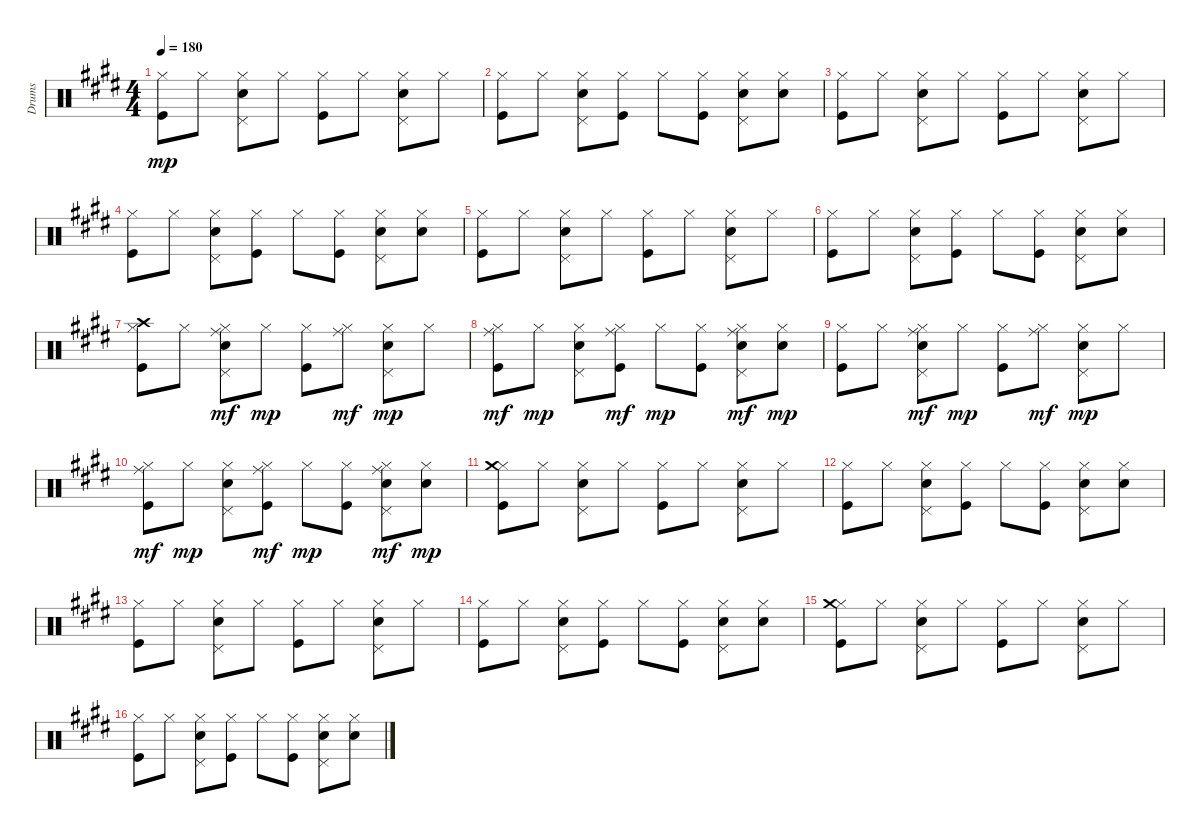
\track ("Drums" "Drums") {instrument percussion}
\staff {score}
\articulation defaults
\ts (4 4)
\tempo 180
\clef neutral
\ks e
("Hi-Hat (closed)" "Kick (hit)").8{dy mp} "Hi-Hat (closed)".8 ("Hi-Hat (closed)" "Snare (hit) 2" "Pedal Hi-Hat (hit)").8 "Hi-Hat (closed)".8 ("Hi-Hat (closed)" "Kick (hit)").8 "Hi-Hat (closed)".8 ("Hi-Hat (closed)" "Snare (hit) 2" "Pedal Hi-Hat (hit)").8 "Hi-Hat (closed)".8 |
("Hi-Hat (closed)" "Kick (hit)").8 "Hi-Hat (closed)".8 ("Hi-Hat (closed)" "Snare (hit) 2" "Pedal Hi-Hat (hit)").8 ("Hi-Hat (closed)" "Kick (hit)").8 "Hi-Hat (closed)".8 ("Hi-Hat (closed)" "Kick (hit)").8 ("Hi-Hat (closed)" "Snare (hit) 2" "Pedal Hi-Hat (hit)").8 ("Hi-Hat (closed)" "Snare (hit) 2").8 |
("Hi-Hat (closed)" "Kick (hit)").8 "Hi-Hat (closed)".8 ("Hi-Hat (closed)" "Snare (hit) 2" "Pedal Hi-Hat (hit)").8 "Hi-Hat (closed)".8 ("Hi-Hat (closed)" "Kick (hit)").8 "Hi-Hat (closed)".8 ("Hi-Hat (closed)" "Snare (hit) 2" "Pedal Hi-Hat (hit)").8 "Hi-Hat (closed)".8 |
("Hi-Hat (closed)" "Kick (hit)").8 "Hi-Hat (closed)".8 ("Hi-Hat (closed)" "Snare (hit) 2" "Pedal Hi-Hat (hit)").8 ("Hi-Hat (closed)" "Kick (hit)").8 "Hi-Hat (closed)".8 ("Hi-Hat (closed)" "Kick (hit)").8 ("Hi-Hat (closed)" "Snare (hit) 2" "Pedal Hi-Hat (hit)").8 ("Hi-Hat (closed)" "Snare (hit) 2").8 |
("Hi-Hat (closed)" "Kick (hit)").8 "Hi-Hat (closed)".8 ("Hi-Hat (closed)" "Snare (hit) 2" "Pedal Hi-Hat (hit)").8 "Hi-Hat (closed)".8 ("Hi-Hat (closed)" "Kick (hit)").8 "Hi-Hat (closed)".8 ("Hi-Hat (closed)" "Snare (hit) 2" "Pedal Hi-Hat (hit)").8 "Hi-Hat (closed)".8 |
("Hi-Hat (closed)" "Kick (hit)").8 "Hi-Hat (closed)".8 ("Hi-Hat (closed)" "Snare (hit) 2" "Pedal Hi-Hat (hit)").8 ("Hi-Hat (closed)" "Kick (hit)").8 "Hi-Hat (closed)".8 ("Hi-Hat (closed)" "Kick (hit)").8 ("Hi-Hat (closed)" "Snare (hit) 2" "Pedal Hi-Hat (hit)").8 ("Hi-Hat (closed)" "Snare (hit) 2").8 |
("Hi-Hat (closed)" "Crash high (hit)" "Kick (hit)").8 "Hi-Hat (closed)".8 ("Hi-Hat (closed)" "Ride (middle)" "Snare (hit) 2" "Pedal Hi-Hat (hit)").8{dy mf} "Hi-Hat (closed)".8{dy mp} ("Hi-Hat (closed)" "Kick (hit)").8 ("Hi-Hat (closed)" "Ride (middle)").8{dy mf} ("Hi-Hat (closed)" "Snare (hit) 2" "Pedal Hi-Hat (hit)").8{dy mp} "Hi-Hat (closed)".8 |
("Hi-Hat (closed)" "Ride (middle)" "Kick (hit)").8{dy mf} "Hi-Hat (closed)".8{dy mp} ("Hi-Hat (closed)" "Snare (hit) 2" "Pedal Hi-Hat (hit)").8 ("Hi-Hat (closed)" "Ride (middle)" "Kick (hit)").8{dy mf} "Hi-Hat (closed)".8{dy mp} ("Hi-Hat (closed)" "Kick (hit)").8 ("Hi-Hat (closed)" "Ride (middle)" "Snare (hit) 2" "Pedal Hi-Hat (hit)").8{dy mf} ("Hi-Hat (closed)" "Snare (hit) 2").8{dy mp} |
("Hi-Hat (closed)" "Kick (hit)").8 "Hi-Hat (closed)".8 ("Hi-Hat (closed)" "Ride (middle)" "Snare (hit) 2" "Pedal Hi-Hat (hit)").8{dy mf} "Hi-Hat (closed)".8{dy mp} ("Hi-Hat (closed)" "Kick (hit)").8 ("Hi-Hat (closed)" "Ride (middle)").8{dy mf} ("Hi-Hat (closed)" "Snare (hit) 2" "Pedal Hi-Hat (hit)").8{dy mp} "Hi-Hat (closed)".8 |
("Hi-Hat (closed)" "Ride (middle)" "Kick (hit)").8{dy mf} "Hi-Hat (closed)".8{dy mp} ("Hi-Hat (closed)" "Snare (hit) 2" "Pedal Hi-Hat (hit)").8 ("Hi-Hat (closed)" "Ride (middle)" "Kick (hit)").8{dy mf} "Hi-Hat (closed)".8{dy mp} ("Hi-Hat (closed)" "Kick (hit)").8 ("Hi-Hat (closed)" "Ride (middle)" "Snare (hit) 2" "Pedal Hi-Hat (hit)").8{dy mf} ("Hi-Hat (closed)" "Snare (hit) 2").8{dy mp} |
("Hi-Hat (closed)" "Crash medium (hit)" "Kick (hit)").8 "Hi-Hat (closed)".8 ("Hi-Hat (closed)" "Snare (hit) 2" "Pedal Hi-Hat (hit)").8 "Hi-Hat (closed)".8 ("Hi-Hat (closed)" "Kick (hit)").8 "Hi-Hat (closed)".8 ("Hi-Hat (closed)" "Snare (hit) 2" "Pedal Hi-Hat (hit)").8 "Hi-Hat (closed)".8 |
("Hi-Hat (closed)" "Kick (hit)").8 "Hi-Hat (closed)".8 ("Hi-Hat (closed)" "Snare (hit) 2" "Pedal Hi-Hat (hit)").8 ("Hi-Hat (closed)" "Kick (hit)").8 "Hi-Hat (closed)".8 ("Hi-Hat (closed)" "Kick (hit)").8 ("Hi-Hat (closed)" "Snare (hit) 2" "Pedal Hi-Hat (hit)").8 ("Hi-Hat (closed)" "Snare (hit) 2").8 |
("Hi-Hat (closed)" "Kick (hit)").8 "Hi-Hat (closed)".8 ("Hi-Hat (closed)" "Snare (hit) 2" "Pedal Hi-Hat (hit)").8 "Hi-Hat (closed)".8 ("Hi-Hat (closed)" "Kick (hit)").8 "Hi-Hat (closed)".8 ("Hi-Hat (closed)" "Snare (hit) 2" "Pedal Hi-Hat (hit)").8 "Hi-Hat (closed)".8 |
("Hi-Hat (closed)" "Kick (hit)").8 "Hi-Hat (closed)".8 ("Hi-Hat (closed)" "Snare (hit) 2" "Pedal Hi-Hat (hit)").8 ("Hi-Hat (closed)" "Kick (hit)").8 "Hi-Hat (closed)".8 ("Hi-Hat (closed)" "Kick (hit)").8 ("Hi-Hat (closed)" "Snare (hit) 2" "Pedal Hi-Hat (hit)").8 ("Hi-Hat (closed)" "Snare (hit) 2").8 |
("Hi-Hat (closed)" "Crash medium (hit)" "Kick (hit)").8 "Hi-Hat (closed)".8 ("Hi-Hat (closed)" "Snare (hit) 2" "Pedal Hi-Hat (hit)").8 "Hi-Hat (closed)".8 ("Hi-Hat (closed)" "Kick (hit)").8 "Hi-Hat (closed)".8 ("Hi-Hat (closed)" "Snare (hit) 2" "Pedal Hi-Hat (hit)").8 "Hi-Hat (closed)".8 |
("Hi-Hat (closed)" "Kick (hit)").8 "Hi-Hat (closed)".8 ("Hi-Hat (closed)" "Snare (hit) 2" "Pedal Hi-Hat (hit)").8 ("Hi-Hat (closed)" "Kick (hit)").8 "Hi-Hat (closed)".8 ("Hi-Hat (closed)" "Kick (hit)").8 ("Hi-Hat (closed)" "Snare (hit) 2" "Pedal Hi-Hat (hit)").8 ("Hi-Hat (closed)" "Snare (hit) 2").8
